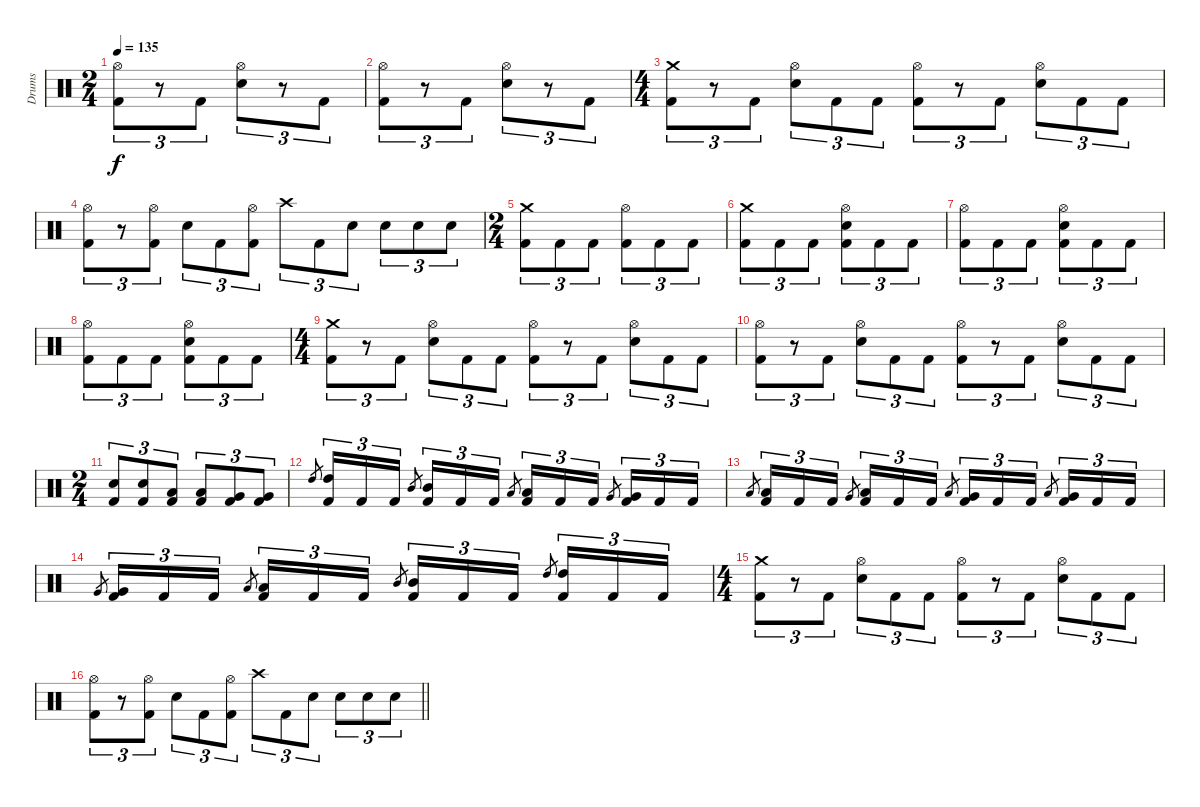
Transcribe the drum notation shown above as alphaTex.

\track ("Drums" "Drums") {instrument percussion}
\staff {score}
\articulation defaults
\ts (2 4)
\tempo 135
\clef neutral
\ks c
("Hi-Hat (open)" "Kick (hit) 2").8{tu (3 2) dy f} r.8{tu (3 2)} "Kick (hit) 2".8{tu (3 2)} ("Hi-Hat (open)" "Electric Snare (hit)").8{tu (3 2)} r.8{tu (3 2)} "Kick (hit) 2".8{tu (3 2)} |
("Hi-Hat (open)" "Kick (hit) 2").8{tu (3 2)} r.8{tu (3 2)} "Kick (hit) 2".8{tu (3 2)} ("Hi-Hat (open)" "Electric Snare (hit)").8{tu (3 2)} r.8{tu (3 2)} "Kick (hit) 2".8{tu (3 2)} |
\ts (4 4)
("Crash medium (hit)" "Kick (hit) 2").8{tu (3 2)} r.8{tu (3 2)} "Kick (hit) 2".8{tu (3 2)} ("Hi-Hat (open)" "Electric Snare (hit)").8{tu (3 2)} "Kick (hit) 2".8{tu (3 2)} "Kick (hit) 2".8{tu (3 2)} ("Hi-Hat (open)" "Kick (hit) 2").8{tu (3 2)} r.8{tu (3 2)} "Kick (hit) 2".8{tu (3 2)} ("Hi-Hat (open)" "Electric Snare (hit)").8{tu (3 2)} "Kick (hit) 2".8{tu (3 2)} "Kick (hit) 2".8{tu (3 2)} |
("Hi-Hat (open)" "Kick (hit) 2").8{tu (3 2)} r.8{tu (3 2)} ("Hi-Hat (open)" "Kick (hit) 2").8{tu (3 2)} "Electric Snare (hit)".8{tu (3 2)} "Kick (hit) 2".8{tu (3 2)} ("Hi-Hat (open)" "Kick (hit) 2").8{tu (3 2)} "Crash high (hit)".8{tu (3 2)} "Kick (hit) 2".8{tu (3 2)} "Electric Snare (hit)".8{tu (3 2)} "Electric Snare (hit)".8{tu (3 2)} "Electric Snare (hit)".8{tu (3 2)} "Electric Snare (hit)".8{tu (3 2)} |
\ts (2 4)
("Crash medium (hit)" "Kick (hit) 2").8{tu (3 2)} "Kick (hit) 2".8{tu (3 2)} "Kick (hit) 2".8{tu (3 2)} ("Hi-Hat (open)" "Kick (hit) 2").8{tu (3 2)} "Kick (hit) 2".8{tu (3 2)} "Kick (hit) 2".8{tu (3 2)} |
("Crash medium (hit)" "Kick (hit) 2").8{tu (3 2)} "Kick (hit) 2".8{tu (3 2)} "Kick (hit) 2".8{tu (3 2)} ("Hi-Hat (open)" "Electric Snare (hit)" "Kick (hit) 2").8{tu (3 2)} "Kick (hit) 2".8{tu (3 2)} "Kick (hit) 2".8{tu (3 2)} |
("Hi-Hat (open)" "Kick (hit) 2").8{tu (3 2)} "Kick (hit) 2".8{tu (3 2)} "Kick (hit) 2".8{tu (3 2)} ("Hi-Hat (open)" "Electric Snare (hit)" "Kick (hit) 2").8{tu (3 2)} "Kick (hit) 2".8{tu (3 2)} "Kick (hit) 2".8{tu (3 2)} |
("Hi-Hat (open)" "Kick (hit) 2").8{tu (3 2)} "Kick (hit) 2".8{tu (3 2)} "Kick (hit) 2".8{tu (3 2)} ("Hi-Hat (open)" "Electric Snare (hit)" "Kick (hit) 2").8{tu (3 2)} "Kick (hit) 2".8{tu (3 2)} "Kick (hit) 2".8{tu (3 2)} |
\ts (4 4)
("Crash medium (hit)" "Kick (hit) 2").8{tu (3 2)} r.8{tu (3 2)} "Kick (hit) 2".8{tu (3 2)} ("Hi-Hat (open)" "Electric Snare (hit)").8{tu (3 2)} "Kick (hit) 2".8{tu (3 2)} "Kick (hit) 2".8{tu (3 2)} ("Hi-Hat (open)" "Kick (hit) 2").8{tu (3 2)} r.8{tu (3 2)} "Kick (hit) 2".8{tu (3 2)} ("Hi-Hat (open)" "Electric Snare (hit)").8{tu (3 2)} "Kick (hit) 2".8{tu (3 2)} "Kick (hit) 2".8{tu (3 2)} |
("Hi-Hat (open)" "Kick (hit) 2").8{tu (3 2)} r.8{tu (3 2)} "Kick (hit) 2".8{tu (3 2)} ("Hi-Hat (open)" "Electric Snare (hit)").8{tu (3 2)} "Kick (hit) 2".8{tu (3 2)} "Kick (hit) 2".8{tu (3 2)} ("Hi-Hat (open)" "Kick (hit) 2").8{tu (3 2)} r.8{tu (3 2)} "Kick (hit) 2".8{tu (3 2)} ("Hi-Hat (open)" "Electric Snare (hit)").8{tu (3 2)} "Kick (hit) 2".8{tu (3 2)} "Kick (hit) 2".8{tu (3 2)} |
\ts (2 4)
("Electric Snare (hit)" "Kick (hit) 2").8{tu (3 2)} ("Electric Snare (hit)" "Kick (hit) 2").8{tu (3 2)} ("Low Tom (hit)" "Kick (hit) 2").8{tu (3 2)} ("Low Tom (hit)" "Kick (hit) 2").8{tu (3 2)} ("Very Low Tom (hit)" "Kick (hit) 2").8{tu (3 2)} ("Very Low Tom (hit)" "Kick (hit) 2").8{tu (3 2)} |
"High Tom (hit)".8{gr} ("High Tom (hit)" "Kick (hit) 2").16{tu (3 2)} "Kick (hit) 2".16{tu (3 2)} "Kick (hit) 2".16{tu (3 2)} "Mid Tom (hit)".8{gr beam splitsecondary} ("Mid Tom (hit)" "Kick (hit) 2").16{tu (3 2)} "Kick (hit) 2".16{tu (3 2)} "Kick (hit) 2".16{tu (3 2)} "Low Tom (hit)".8{gr} ("Low Tom (hit)" "Kick (hit) 2").16{tu (3 2)} "Kick (hit) 2".16{tu (3 2)} "Kick (hit) 2".16{tu (3 2)} "Very Low Tom (hit)".8{gr beam splitsecondary} ("Very Low Tom (hit)" "Kick (hit) 2").16{tu (3 2)} "Kick (hit) 2".16{tu (3 2)} "Kick (hit) 2".16{tu (3 2)} |
"Low Floor Tom (hit)".8{gr} ("Low Floor Tom (hit)" "Kick (hit) 2").16{tu (3 2)} "Kick (hit) 2".16{tu (3 2)} "Kick (hit) 2".16{tu (3 2)} "Very Low Tom (hit)".8{gr beam splitsecondary} ("Low Floor Tom (hit)" "Kick (hit) 2").16{tu (3 2)} "Kick (hit) 2".16{tu (3 2)} "Kick (hit) 2".16{tu (3 2)} "Low Floor Tom (hit)".8{gr} ("Very Low Tom (hit)" "Kick (hit) 2").16{tu (3 2)} "Kick (hit) 2".16{tu (3 2)} "Kick (hit) 2".16{tu (3 2)} "Low Floor Tom (hit)".8{gr beam splitsecondary} ("Very Low Tom (hit)" "Kick (hit) 2").16{tu (3 2)} "Kick (hit) 2".16{tu (3 2)} "Kick (hit) 2".16{tu (3 2)} |
"Very Low Tom (hit)".8{gr} ("Very Low Tom (hit)" "Kick (hit) 2").16{tu (3 2)} "Kick (hit) 2".16{tu (3 2)} "Kick (hit) 2".16{tu (3 2)} "Low Tom (hit)".8{gr beam splitsecondary} ("Low Tom (hit)" "Kick (hit) 2").16{tu (3 2)} "Kick (hit) 2".16{tu (3 2)} "Kick (hit) 2".16{tu (3 2)} "Mid Tom (hit)".8{gr} ("Mid Tom (hit)" "Kick (hit) 2").16{tu (3 2)} "Kick (hit) 2".16{tu (3 2)} "Kick (hit) 2".16{tu (3 2)} "High Tom (hit)".8{gr beam splitsecondary} ("High Tom (hit)" "Kick (hit) 2").16{tu (3 2)} "Kick (hit) 2".16{tu (3 2)} "Kick (hit) 2".16{tu (3 2)} |
\ts (4 4)
("Crash medium (hit)" "Kick (hit) 2").8{tu (3 2)} r.8{tu (3 2)} "Kick (hit) 2".8{tu (3 2)} ("Hi-Hat (open)" "Electric Snare (hit)").8{tu (3 2)} "Kick (hit) 2".8{tu (3 2)} "Kick (hit) 2".8{tu (3 2)} ("Hi-Hat (open)" "Kick (hit) 2").8{tu (3 2)} r.8{tu (3 2)} "Kick (hit) 2".8{tu (3 2)} ("Hi-Hat (open)" "Electric Snare (hit)").8{tu (3 2)} "Kick (hit) 2".8{tu (3 2)} "Kick (hit) 2".8{tu (3 2)} |
\barLineRight lightlight
("Hi-Hat (open)" "Kick (hit) 2").8{tu (3 2)} r.8{tu (3 2)} ("Hi-Hat (open)" "Kick (hit) 2").8{tu (3 2)} "Electric Snare (hit)".8{tu (3 2)} "Kick (hit) 2".8{tu (3 2)} ("Hi-Hat (open)" "Kick (hit) 2").8{tu (3 2)} "Crash high (hit)".8{tu (3 2)} "Kick (hit) 2".8{tu (3 2)} "Electric Snare (hit)".8{tu (3 2)} "Electric Snare (hit)".8{tu (3 2)} "Electric Snare (hit)".8{tu (3 2)} "Electric Snare (hit)".8{tu (3 2)}
